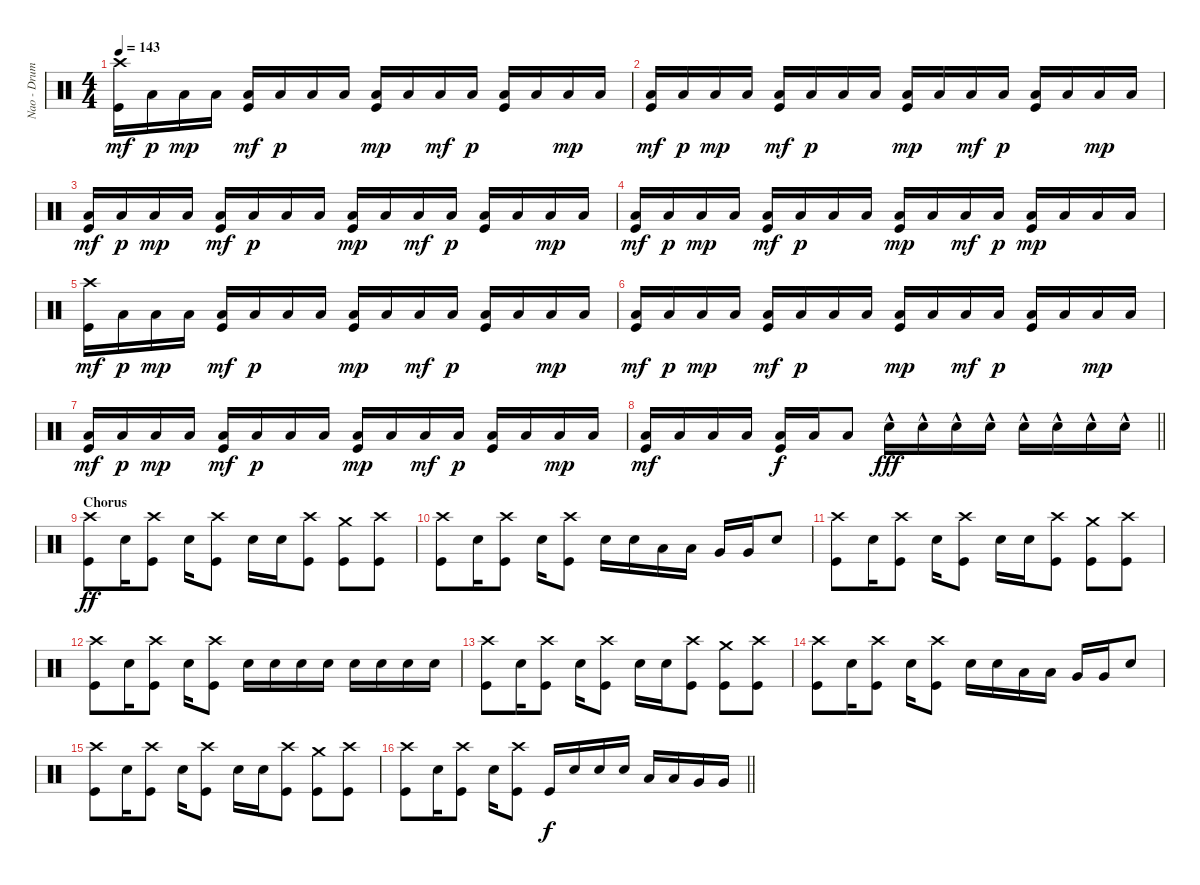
\track ("Nao - Drums" "Nao - Drum") {instrument percussion}
\staff {score}
\articulation defaults
\ts (4 4)
\tempo 143
\clef neutral
\ks c
("Kick (hit)" "Crash high (hit)").16{dy mf} "Low Floor Tom (hit)".16{dy p} "Low Floor Tom (hit)".16{dy mp} "Low Floor Tom (hit)".16 ("Low Floor Tom (hit)" "Kick (hit)").16{dy mf} "Low Floor Tom (hit)".16{dy p} "Low Floor Tom (hit)".16 "Low Floor Tom (hit)".16 ("Low Floor Tom (hit)" "Kick (hit)").16{dy mp} "Low Floor Tom (hit)".16 "Low Floor Tom (hit)".16{dy mf} "Low Floor Tom (hit)".16{dy p} ("Kick (hit)" "Low Floor Tom (hit)").16 "Low Floor Tom (hit)".16 "Low Floor Tom (hit)".16{dy mp} "Low Floor Tom (hit)".16 |
("Low Floor Tom (hit)" "Kick (hit)").16{dy mf} "Low Floor Tom (hit)".16{dy p} "Low Floor Tom (hit)".16{dy mp} "Low Floor Tom (hit)".16 ("Low Floor Tom (hit)" "Kick (hit)").16{dy mf} "Low Floor Tom (hit)".16{dy p} "Low Floor Tom (hit)".16 "Low Floor Tom (hit)".16 ("Low Floor Tom (hit)" "Kick (hit)").16{dy mp} "Low Floor Tom (hit)".16 "Low Floor Tom (hit)".16{dy mf} "Low Floor Tom (hit)".16{dy p} ("Kick (hit)" "Low Floor Tom (hit)").16 "Low Floor Tom (hit)".16 "Low Floor Tom (hit)".16{dy mp} "Low Floor Tom (hit)".16 |
("Low Floor Tom (hit)" "Kick (hit)").16{dy mf} "Low Floor Tom (hit)".16{dy p} "Low Floor Tom (hit)".16{dy mp} "Low Floor Tom (hit)".16 ("Low Floor Tom (hit)" "Kick (hit)").16{dy mf} "Low Floor Tom (hit)".16{dy p} "Low Floor Tom (hit)".16 "Low Floor Tom (hit)".16 ("Low Floor Tom (hit)" "Kick (hit)").16{dy mp} "Low Floor Tom (hit)".16 "Low Floor Tom (hit)".16{dy mf} "Low Floor Tom (hit)".16{dy p} ("Kick (hit)" "Low Floor Tom (hit)").16 "Low Floor Tom (hit)".16 "Low Floor Tom (hit)".16{dy mp} "Low Floor Tom (hit)".16 |
("Low Floor Tom (hit)" "Kick (hit)").16{dy mf} "Low Floor Tom (hit)".16{dy p} "Low Floor Tom (hit)".16{dy mp} "Low Floor Tom (hit)".16 ("Low Floor Tom (hit)" "Kick (hit)").16{dy mf} "Low Floor Tom (hit)".16{dy p} "Low Floor Tom (hit)".16 "Low Floor Tom (hit)".16 ("Low Floor Tom (hit)" "Kick (hit)").16{dy mp} "Low Floor Tom (hit)".16 "Low Floor Tom (hit)".16{dy mf} "Low Floor Tom (hit)".16{dy p} ("Kick (hit)" "Low Floor Tom (hit)").16{dy mp} "Low Floor Tom (hit)".16 "Low Floor Tom (hit)".16 "Low Floor Tom (hit)".16 |
("Kick (hit)" "Crash high (hit)").16{dy mf} "Low Floor Tom (hit)".16{dy p} "Low Floor Tom (hit)".16{dy mp} "Low Floor Tom (hit)".16 ("Low Floor Tom (hit)" "Kick (hit)").16{dy mf} "Low Floor Tom (hit)".16{dy p} "Low Floor Tom (hit)".16 "Low Floor Tom (hit)".16 ("Low Floor Tom (hit)" "Kick (hit)").16{dy mp} "Low Floor Tom (hit)".16 "Low Floor Tom (hit)".16{dy mf} "Low Floor Tom (hit)".16{dy p} ("Kick (hit)" "Low Floor Tom (hit)").16 "Low Floor Tom (hit)".16 "Low Floor Tom (hit)".16{dy mp} "Low Floor Tom (hit)".16 |
("Low Floor Tom (hit)" "Kick (hit)").16{dy mf} "Low Floor Tom (hit)".16{dy p} "Low Floor Tom (hit)".16{dy mp} "Low Floor Tom (hit)".16 ("Low Floor Tom (hit)" "Kick (hit)").16{dy mf} "Low Floor Tom (hit)".16{dy p} "Low Floor Tom (hit)".16 "Low Floor Tom (hit)".16 ("Low Floor Tom (hit)" "Kick (hit)").16{dy mp} "Low Floor Tom (hit)".16 "Low Floor Tom (hit)".16{dy mf} "Low Floor Tom (hit)".16{dy p} ("Kick (hit)" "Low Floor Tom (hit)").16 "Low Floor Tom (hit)".16 "Low Floor Tom (hit)".16{dy mp} "Low Floor Tom (hit)".16 |
("Low Floor Tom (hit)" "Kick (hit)").16{dy mf} "Low Floor Tom (hit)".16{dy p} "Low Floor Tom (hit)".16{dy mp} "Low Floor Tom (hit)".16 ("Low Floor Tom (hit)" "Kick (hit)").16{dy mf} "Low Floor Tom (hit)".16{dy p} "Low Floor Tom (hit)".16 "Low Floor Tom (hit)".16 ("Low Floor Tom (hit)" "Kick (hit)").16{dy mp} "Low Floor Tom (hit)".16 "Low Floor Tom (hit)".16{dy mf} "Low Floor Tom (hit)".16{dy p} ("Kick (hit)" "Low Floor Tom (hit)").16 "Low Floor Tom (hit)".16 "Low Floor Tom (hit)".16{dy mp} "Low Floor Tom (hit)".16 |
\barLineRight lightlight
("Kick (hit)" "Low Floor Tom (hit)").16{dy mf} "Low Floor Tom (hit)".16 "Low Floor Tom (hit)".16 "Low Floor Tom (hit)".16 ("Low Floor Tom (hit)" "Kick (hit)").16{dy f} "Low Floor Tom (hit)".16 "Low Floor Tom (hit)".8 "Snare (hit) 2"{hac}.16{dy fff} "Snare (hit) 2"{hac}.16 "Snare (hit) 2"{hac}.16 "Snare (hit) 2"{hac}.16 "Snare (hit) 2"{hac}.16 "Snare (hit) 2"{hac}.16 "Snare (hit) 2"{hac}.16 "Snare (hit) 2"{hac}.16 |
\section ("" "Chorus")
("Crash high (hit)" "Kick (hit)").8{dy ff} "Snare (hit) 2".16 ("Crash high (hit)" "Kick (hit)").8 "Snare (hit) 2".16 ("Crash high (hit)" "Kick (hit)").8 "Snare (hit) 2".16 "Snare (hit) 2".16 ("Kick (hit)" "Crash high (hit)").8 ("Crash medium (hit)" "Kick (hit)").8 ("Crash high (hit)" "Kick (hit)").8 |
("Crash high (hit)" "Kick (hit)").8 "Snare (hit) 2".16 ("Crash high (hit)" "Kick (hit)").8 "Snare (hit) 2".16 ("Crash high (hit)" "Kick (hit)").8 "Snare (hit) 2".16 "Snare (hit) 2".16 "Low Tom (hit)".16 "Low Tom (hit)".16 "Very Low Tom (hit)".16 "Very Low Tom (hit)".16 "Snare (hit) 2".8 |
("Crash high (hit)" "Kick (hit)").8 "Snare (hit) 2".16 ("Crash high (hit)" "Kick (hit)").8 "Snare (hit) 2".16 ("Crash high (hit)" "Kick (hit)").8 "Snare (hit) 2".16 "Snare (hit) 2".16 ("Kick (hit)" "Crash high (hit)").8 ("Crash medium (hit)" "Kick (hit)").8 ("Crash high (hit)" "Kick (hit)").8 |
("Crash high (hit)" "Kick (hit)").8 "Snare (hit) 2".16 ("Crash high (hit)" "Kick (hit)").8 "Snare (hit) 2".16 ("Crash high (hit)" "Kick (hit)").8 "Snare (hit) 2".16 "Snare (hit) 2".16 "Snare (hit) 2".16 "Snare (hit) 2".16 "Snare (hit) 2".16 "Snare (hit) 2".16 "Snare (hit) 2".16 "Snare (hit) 2".16 |
("Crash high (hit)" "Kick (hit)").8 "Snare (hit) 2".16 ("Crash high (hit)" "Kick (hit)").8 "Snare (hit) 2".16 ("Crash high (hit)" "Kick (hit)").8 "Snare (hit) 2".16 "Snare (hit) 2".16 ("Kick (hit)" "Crash high (hit)").8 ("Crash medium (hit)" "Kick (hit)").8 ("Crash high (hit)" "Kick (hit)").8 |
("Crash high (hit)" "Kick (hit)").8 "Snare (hit) 2".16 ("Crash high (hit)" "Kick (hit)").8 "Snare (hit) 2".16 ("Crash high (hit)" "Kick (hit)").8 "Snare (hit) 2".16 "Snare (hit) 2".16 "Low Tom (hit)".16 "Low Tom (hit)".16 "Very Low Tom (hit)".16 "Very Low Tom (hit)".16 "Snare (hit) 2".8 |
("Crash high (hit)" "Kick (hit)").8 "Snare (hit) 2".16 ("Crash high (hit)" "Kick (hit)").8 "Snare (hit) 2".16 ("Crash high (hit)" "Kick (hit)").8 "Snare (hit) 2".16 "Snare (hit) 2".16 ("Kick (hit)" "Crash high (hit)").8 ("Crash medium (hit)" "Kick (hit)").8 ("Crash high (hit)" "Kick (hit)").8 |
\barLineRight lightlight
("Crash high (hit)" "Kick (hit)").8 "Snare (hit) 2".16 ("Crash high (hit)" "Kick (hit)").8 "Snare (hit) 2".16 ("Crash high (hit)" "Kick (hit)").8 "Kick (hit)".16{dy f} "Snare (hit) 2".16 "Snare (hit) 2".16 "Snare (hit) 2".16 "Low Tom (hit)".16 "Low Tom (hit)".16 "Very Low Tom (hit)".16 "Very Low Tom (hit)".16
